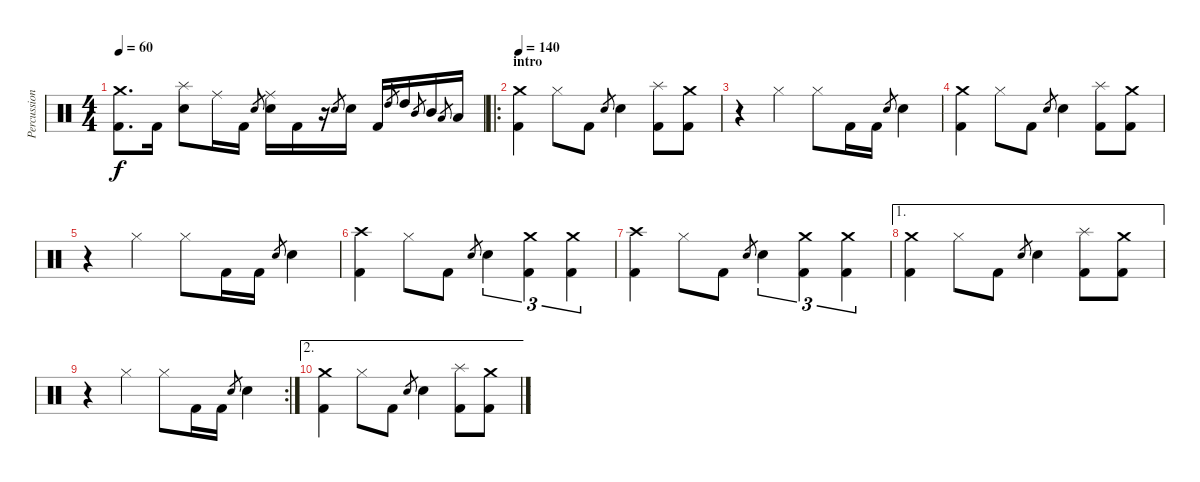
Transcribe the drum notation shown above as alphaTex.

\track ("Percussions" "Percussion") {instrument percussion}
\staff {score}
\articulation defaults
\ts (4 4)
\tempo 60
\clef neutral
\ks c
("Crash medium (hit)" "Kick (hit) 2").8{d dy f} "Kick (hit) 2".16 ("Splash (hit)" "Electric Snare (hit)").8 "Ride (middle)".16 "Kick (hit) 2".16 "Electric Snare (hit)".8{gr} ("Ride (middle)" "Electric Snare (hit)").16 "Kick (hit) 2".16 r.16 "Electric Snare (hit)".8{gr} "Electric Snare (hit)".16 "Kick (hit) 2".16 "High Tom (hit)".8{gr} "High Tom (hit)".16 "Mid Tom (hit)".8{gr} "Mid Tom (hit)".16 "Low Tom (hit)".8{gr} "Low Tom (hit)".16 |
\ro
\section ("" "intro")
\tempo 140
("Crash medium (hit)" "Kick (hit) 2").4 "Hi-Hat (closed)".8 "Kick (hit) 2".8 "Electric Snare (hit)".8{gr} "Electric Snare (hit)".4 ("Splash (hit)" "Kick (hit) 2").8 ("Crash medium (hit)" "Kick (hit) 2").8 |
r.4 "Hi-Hat (closed)".4 "Hi-Hat (closed)".8 "Kick (hit) 2".16 "Kick (hit) 2".16 "Electric Snare (hit)".8{gr} "Electric Snare (hit)".4 |
("Crash medium (hit)" "Kick (hit) 2").4 "Hi-Hat (closed)".8 "Kick (hit) 2".8 "Electric Snare (hit)".8{gr} "Electric Snare (hit)".4 ("Splash (hit)" "Kick (hit) 2").8 ("Crash medium (hit)" "Kick (hit) 2").8 |
r.4 "Hi-Hat (closed)".4 "Hi-Hat (closed)".8 "Kick (hit) 2".16 "Kick (hit) 2".16 "Electric Snare (hit)".8{gr} "Electric Snare (hit)".4 |
("Crash high (hit)" "Kick (hit) 2").4 "Hi-Hat (closed)".8 "Kick (hit) 2".8 "Electric Snare (hit)".8{gr} "Electric Snare (hit)".4{tu (3 2)} ("Crash medium (hit)" "Kick (hit) 2").4{tu (3 2)} ("Crash medium (hit)" "Kick (hit) 2").4{tu (3 2)} |
("Crash high (hit)" "Kick (hit) 2").4 "Hi-Hat (closed)".8 "Kick (hit) 2".8 "Electric Snare (hit)".8{gr} "Electric Snare (hit)".4{tu (3 2)} ("Crash medium (hit)" "Kick (hit) 2").4{tu (3 2)} ("Crash medium (hit)" "Kick (hit) 2").4{tu (3 2)} |
\ae 1
("Crash medium (hit)" "Kick (hit) 2").4 "Hi-Hat (closed)".8 "Kick (hit) 2".8 "Electric Snare (hit)".8{gr} "Electric Snare (hit)".4 ("Splash (hit)" "Kick (hit) 2").8 ("Crash medium (hit)" "Kick (hit) 2").8 |
\rc 2
r.4 "Hi-Hat (closed)".4 "Hi-Hat (closed)".8 "Kick (hit) 2".16 "Kick (hit) 2".16 "Electric Snare (hit)".8{gr} "Electric Snare (hit)".4 |
\ae 2
("Crash medium (hit)" "Kick (hit) 2").4 "Hi-Hat (closed)".8 "Kick (hit) 2".8 "Electric Snare (hit)".8{gr} "Electric Snare (hit)".4 ("Splash (hit)" "Kick (hit) 2").8 ("Crash medium (hit)" "Kick (hit) 2").8
